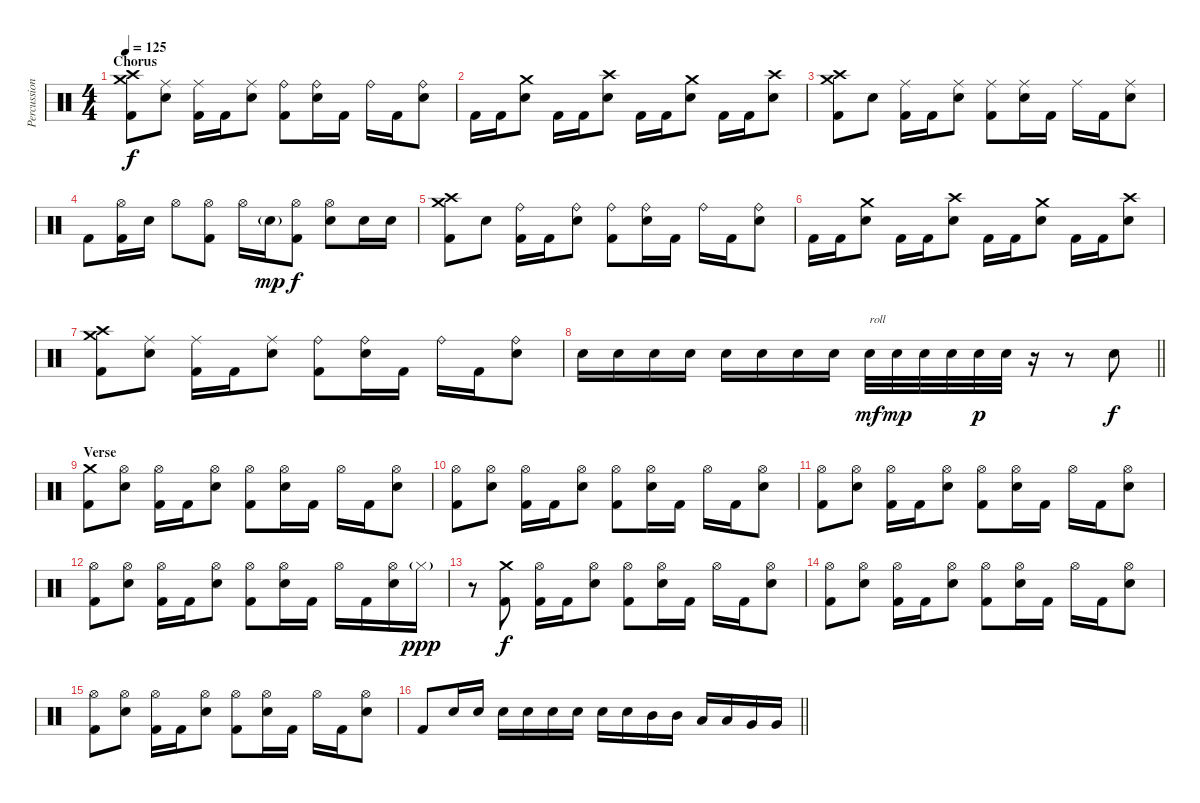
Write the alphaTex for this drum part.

\track ("Percussion" "Percussion") {instrument percussion}
\staff {score}
\articulation defaults
\ts (4 4)
\section ("" "Chorus")
\tempo 125
\clef neutral
\ks c
("Crash medium (hit)" "Crash high (hit)" "Kick (hit) 2").8{dy f} ("Ride (middle)" "Electric Snare (hit)").8 ("Ride (middle)" "Kick (hit) 2").16 "Kick (hit) 2".16 ("Ride (middle)" "Electric Snare (hit)").8 ("Ride (bell)" "Kick (hit) 2").8 ("Ride (bell)" "Electric Snare (hit)").16 "Kick (hit) 2".16 "Ride (bell)".16 "Kick (hit) 2".16 ("Ride (bell)" "Electric Snare (hit)").8 |
"Kick (hit) 2".16 "Kick (hit) 2".16 ("Crash medium (hit)" "Electric Snare (hit)").8 "Kick (hit) 2".16 "Kick (hit) 2".16 ("Crash high (hit)" "Electric Snare (hit)").8 "Kick (hit) 2".16 "Kick (hit) 2".16 ("Crash medium (hit)" "Electric Snare (hit)").8 "Kick (hit) 2".16 "Kick (hit) 2".16 ("Crash high (hit)" "Electric Snare (hit)").8 |
("Crash medium (hit)" "Crash high (hit)" "Kick (hit) 2").8 "Electric Snare (hit)".8 ("Ride (middle)" "Kick (hit) 2").16 "Kick (hit) 2".16 ("Ride (middle)" "Electric Snare (hit)").8 ("Ride (middle)" "Kick (hit) 2").8 ("Ride (middle)" "Electric Snare (hit)").16 "Kick (hit) 2".16 "Ride (middle)".16 "Kick (hit) 2".16 ("Ride (middle)" "Electric Snare (hit)").8 |
"Kick (hit) 2".8 ("Hi-Hat (open)" "Kick (hit) 2").16 "Electric Snare (hit)".16 "Hi-Hat (open)".8 ("Hi-Hat (open)" "Kick (hit) 2").8 "Hi-Hat (open)".16 "Electric Snare (hit)"{g}.16{dy mp} ("Hi-Hat (open)" "Kick (hit) 2").8{dy f} ("Hi-Hat (open)" "Electric Snare (hit)").8 "Electric Snare (hit)".16 "Electric Snare (hit)".16 |
("Crash medium (hit)" "Crash high (hit)" "Kick (hit) 2").8 "Electric Snare (hit)".8 ("Ride (bell)" "Kick (hit) 2").16 "Kick (hit) 2".16 ("Ride (bell)" "Electric Snare (hit)").8 ("Ride (bell)" "Kick (hit) 2").8 ("Ride (bell)" "Electric Snare (hit)").16 "Kick (hit) 2".16 "Ride (bell)".16 "Kick (hit) 2".16 ("Ride (bell)" "Electric Snare (hit)").8 |
"Kick (hit) 2".16 "Kick (hit) 2".16 ("Crash medium (hit)" "Electric Snare (hit)").8 "Kick (hit) 2".16 "Kick (hit) 2".16 ("Crash high (hit)" "Electric Snare (hit)").8 "Kick (hit) 2".16 "Kick (hit) 2".16 ("Crash medium (hit)" "Electric Snare (hit)").8 "Kick (hit) 2".16 "Kick (hit) 2".16 ("Crash high (hit)" "Electric Snare (hit)").8 |
("Crash medium (hit)" "Crash high (hit)" "Kick (hit) 2").8 ("Ride (middle)" "Electric Snare (hit)").8 ("Ride (middle)" "Kick (hit) 2").16 "Kick (hit) 2".16 ("Ride (middle)" "Electric Snare (hit)").8 ("Ride (bell)" "Kick (hit) 2").8 ("Ride (bell)" "Electric Snare (hit)").16 "Kick (hit) 2".16 "Ride (bell)".16 "Kick (hit) 2".16 ("Ride (bell)" "Electric Snare (hit)").8 |
\barLineRight lightlight "Electric Snare (hit)".16 "Electric Snare (hit)".16 "Electric Snare (hit)".16 "Electric Snare (hit)".16 "Electric Snare (hit)".16 "Electric Snare (hit)".16 "Electric Snare (hit)".16 "Electric Snare (hit)".16 "Electric Snare (hit)".32{txt "roll" dy mf} "Electric Snare (hit)".32{dy mp} "Electric Snare (hit)".32 "Electric Snare (hit)".32 "Electric Snare (hit)".32{dy p} "Electric Snare (hit)".32
r.16 r.8 "Electric Snare (hit)".8{dy f} |
\section ("" "Verse")
("Crash medium (hit)" "Kick (hit) 2").8 ("Hi-Hat (open)" "Electric Snare (hit)").8 ("Hi-Hat (open)" "Kick (hit) 2").16 "Kick (hit) 2".16 ("Hi-Hat (open)" "Electric Snare (hit)").8 ("Hi-Hat (open)" "Kick (hit) 2").8 ("Hi-Hat (open)" "Electric Snare (hit)").16 "Kick (hit) 2".16 "Hi-Hat (open)".16 "Kick (hit) 2".16 ("Hi-Hat (open)" "Electric Snare (hit)").8 |
("Hi-Hat (open)" "Kick (hit) 2").8 ("Hi-Hat (open)" "Electric Snare (hit)").8 ("Hi-Hat (open)" "Kick (hit) 2").16 "Kick (hit) 2".16 ("Hi-Hat (open)" "Electric Snare (hit)").8 ("Hi-Hat (open)" "Kick (hit) 2").8 ("Hi-Hat (open)" "Electric Snare (hit)").16 "Kick (hit) 2".16 "Hi-Hat (open)".16 "Kick (hit) 2".16 ("Hi-Hat (open)" "Electric Snare (hit)").8 |
("Hi-Hat (open)" "Kick (hit) 2").8 ("Hi-Hat (open)" "Electric Snare (hit)").8 ("Hi-Hat (open)" "Kick (hit) 2").16 "Kick (hit) 2".16 ("Hi-Hat (open)" "Electric Snare (hit)").8 ("Hi-Hat (open)" "Kick (hit) 2").8 ("Hi-Hat (open)" "Electric Snare (hit)").16 "Kick (hit) 2".16 "Hi-Hat (open)".16 "Kick (hit) 2".16 ("Hi-Hat (open)" "Electric Snare (hit)").8 |
("Hi-Hat (open)" "Kick (hit) 2").8 ("Hi-Hat (open)" "Electric Snare (hit)").8 ("Hi-Hat (open)" "Kick (hit) 2").16 "Kick (hit) 2".16 ("Hi-Hat (open)" "Electric Snare (hit)").8 ("Hi-Hat (open)" "Kick (hit) 2").8 ("Hi-Hat (open)" "Electric Snare (hit)").16 "Kick (hit) 2".16 "Hi-Hat (open)".16 "Kick (hit) 2".16 ("Hi-Hat (open)" "Electric Snare (hit)").16 "Hi-Hat (closed)"{g}.16{dy ppp} |
r.8 ("Crash medium (hit)" "Kick (hit) 2").8{dy f} ("Hi-Hat (open)" "Kick (hit) 2").16 "Kick (hit) 2".16 ("Hi-Hat (open)" "Electric Snare (hit)").8 ("Hi-Hat (open)" "Kick (hit) 2").8 ("Hi-Hat (open)" "Electric Snare (hit)").16 "Kick (hit) 2".16 "Hi-Hat (open)".16 "Kick (hit) 2".16 ("Hi-Hat (open)" "Electric Snare (hit)").8 |
("Hi-Hat (open)" "Kick (hit) 2").8 ("Hi-Hat (open)" "Electric Snare (hit)").8 ("Hi-Hat (open)" "Kick (hit) 2").16 "Kick (hit) 2".16 ("Hi-Hat (open)" "Electric Snare (hit)").8 ("Hi-Hat (open)" "Kick (hit) 2").8 ("Hi-Hat (open)" "Electric Snare (hit)").16 "Kick (hit) 2".16 "Hi-Hat (open)".16 "Kick (hit) 2".16 ("Hi-Hat (open)" "Electric Snare (hit)").8 |
("Hi-Hat (open)" "Kick (hit) 2").8 ("Hi-Hat (open)" "Electric Snare (hit)").8 ("Hi-Hat (open)" "Kick (hit) 2").16 "Kick (hit) 2".16 ("Hi-Hat (open)" "Electric Snare (hit)").8 ("Hi-Hat (open)" "Kick (hit) 2").8 ("Hi-Hat (open)" "Electric Snare (hit)").16 "Kick (hit) 2".16 "Hi-Hat (open)".16 "Kick (hit) 2".16 ("Hi-Hat (open)" "Electric Snare (hit)").8 |
\barLineRight lightlight "Kick (hit) 2".8 "Electric Snare (hit)".16 "Electric Snare (hit)".16 "Electric Snare (hit)".16 "Electric Snare (hit)".16 "Electric Snare (hit)".16 "Electric Snare (hit)".16 "Electric Snare (hit)".16 "Electric Snare (hit)".16 "Mid Tom (hit)".16 "Mid Tom (hit)".16 "Low Tom (hit)".16 "Low Tom (hit)".16 "Very Low Tom (hit)".16 "Very Low Tom (hit)".16
